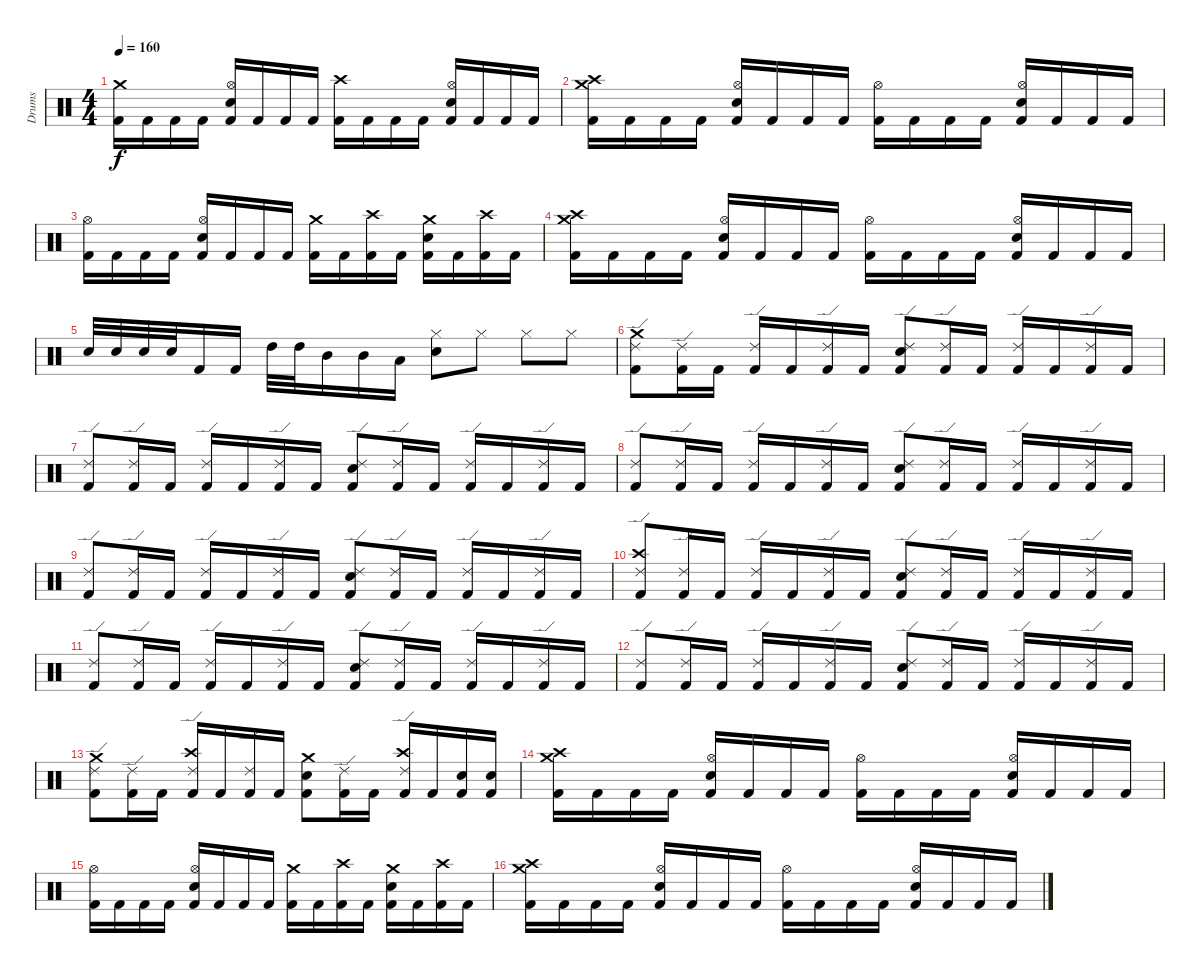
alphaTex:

\track ("Drums" "Drums") {instrument percussion}
\staff {score}
\articulation defaults
\ts (4 4)
\tempo 160
\clef neutral
\ks c
("Crash medium (hit)" "Kick (hit) 2").16{dy f} "Kick (hit) 2".16 "Kick (hit) 2".16 "Kick (hit) 2".16 ("Hi-Hat (open)" "Kick (hit) 2" "Snare (hit) 2").16 "Kick (hit) 2".16 "Kick (hit) 2".16 "Kick (hit) 2".16 ("Crash high (hit)" "Kick (hit) 2").16 "Kick (hit) 2".16 "Kick (hit) 2".16 "Kick (hit) 2".16 ("Hi-Hat (open)" "Kick (hit) 2" "Snare (hit) 2").16 "Kick (hit) 2".16 "Kick (hit) 2".16 "Kick (hit) 2".16 |
("Crash medium (hit)" "Crash high (hit)" "Kick (hit) 2").16 "Kick (hit) 2".16 "Kick (hit) 2".16 "Kick (hit) 2".16 ("Hi-Hat (open)" "Kick (hit) 2" "Snare (hit) 2").16 "Kick (hit) 2".16 "Kick (hit) 2".16 "Kick (hit) 2".16 ("Hi-Hat (open)" "Kick (hit) 2").16 "Kick (hit) 2".16 "Kick (hit) 2".16 "Kick (hit) 2".16 ("Hi-Hat (open)" "Kick (hit) 2" "Snare (hit) 2").16 "Kick (hit) 2".16 "Kick (hit) 2".16 "Kick (hit) 2".16 |
("Hi-Hat (open)" "Kick (hit) 2").16 "Kick (hit) 2".16 "Kick (hit) 2".16 "Kick (hit) 2".16 ("Hi-Hat (open)" "Kick (hit) 2" "Snare (hit) 2").16 "Kick (hit) 2".16 "Kick (hit) 2".16 "Kick (hit) 2".16 ("Crash medium (hit)" "Kick (hit) 2").16 "Kick (hit) 2".16 ("Crash high (hit)" "Kick (hit) 2").16 "Kick (hit) 2".16 ("Crash medium (hit)" "Kick (hit) 2" "Snare (hit) 2").16 "Kick (hit) 2".16 ("Crash high (hit)" "Kick (hit) 2").16 "Kick (hit) 2".16 |
("Crash medium (hit)" "Crash high (hit)" "Kick (hit) 2").16 "Kick (hit) 2".16 "Kick (hit) 2".16 "Kick (hit) 2".16 ("Hi-Hat (open)" "Kick (hit) 2" "Snare (hit) 2").16 "Kick (hit) 2".16 "Kick (hit) 2".16 "Kick (hit) 2".16 ("Hi-Hat (open)" "Kick (hit) 2").16 "Kick (hit) 2".16 "Kick (hit) 2".16 "Kick (hit) 2".16 ("Hi-Hat (open)" "Kick (hit) 2" "Snare (hit) 2").16 "Kick (hit) 2".16 "Kick (hit) 2".16 "Kick (hit) 2".16 |
"Snare (hit) 2".32 "Snare (hit) 2".32 "Snare (hit) 2".32 "Snare (hit) 2".32 "Kick (hit) 2".16 "Kick (hit) 2".16 "High Tom (hit)".32 "High Tom (hit)".32 "Mid Tom (hit)".16 "Mid Tom (hit)".16 "Low Tom (hit)".16 ("Hi-Hat (closed)" "Snare (hit) 2").8 "Hi-Hat (closed)".8 "Hi-Hat (closed)".8 "Hi-Hat (closed)".8 |
("Crash medium (hit)" "Ride (edge) 2" "Kick (hit) 2").8 ("Ride (edge) 2" "Kick (hit) 2").16 "Kick (hit) 2".16 ("Ride (edge) 2" "Kick (hit) 2").16 "Kick (hit) 2".16 ("Ride (edge) 2" "Kick (hit) 2").16 "Kick (hit) 2".16 ("Ride (edge) 2" "Kick (hit) 2" "Snare (hit) 2").8 ("Ride (edge) 2" "Kick (hit) 2").16 "Kick (hit) 2".16 ("Ride (edge) 2" "Kick (hit) 2").16 "Kick (hit) 2".16 ("Ride (edge) 2" "Kick (hit) 2").16 "Kick (hit) 2".16 |
("Ride (edge) 2" "Kick (hit) 2").8 ("Ride (edge) 2" "Kick (hit) 2").16 "Kick (hit) 2".16 ("Ride (edge) 2" "Kick (hit) 2").16 "Kick (hit) 2".16 ("Ride (edge) 2" "Kick (hit) 2").16 "Kick (hit) 2".16 ("Ride (edge) 2" "Kick (hit) 2" "Snare (hit) 2").8 ("Ride (edge) 2" "Kick (hit) 2").16 "Kick (hit) 2".16 ("Ride (edge) 2" "Kick (hit) 2").16 "Kick (hit) 2".16 ("Ride (edge) 2" "Kick (hit) 2").16 "Kick (hit) 2".16 |
("Ride (edge) 2" "Kick (hit) 2").8 ("Ride (edge) 2" "Kick (hit) 2").16 "Kick (hit) 2".16 ("Ride (edge) 2" "Kick (hit) 2").16 "Kick (hit) 2".16 ("Ride (edge) 2" "Kick (hit) 2").16 "Kick (hit) 2".16 ("Ride (edge) 2" "Kick (hit) 2" "Snare (hit) 2").8 ("Ride (edge) 2" "Kick (hit) 2").16 "Kick (hit) 2".16 ("Ride (edge) 2" "Kick (hit) 2").16 "Kick (hit) 2".16 ("Ride (edge) 2" "Kick (hit) 2").16 "Kick (hit) 2".16 |
("Ride (edge) 2" "Kick (hit) 2").8 ("Ride (edge) 2" "Kick (hit) 2").16 "Kick (hit) 2".16 ("Ride (edge) 2" "Kick (hit) 2").16 "Kick (hit) 2".16 ("Ride (edge) 2" "Kick (hit) 2").16 "Kick (hit) 2".16 ("Ride (edge) 2" "Kick (hit) 2" "Snare (hit) 2").8 ("Ride (edge) 2" "Kick (hit) 2").16 "Kick (hit) 2".16 ("Ride (edge) 2" "Kick (hit) 2").16 "Kick (hit) 2".16 ("Ride (edge) 2" "Kick (hit) 2").16 "Kick (hit) 2".16 |
("Crash high (hit)" "Ride (edge) 2" "Kick (hit) 2").8 ("Ride (edge) 2" "Kick (hit) 2").16 "Kick (hit) 2".16 ("Ride (edge) 2" "Kick (hit) 2").16 "Kick (hit) 2".16 ("Ride (edge) 2" "Kick (hit) 2").16 "Kick (hit) 2".16 ("Ride (edge) 2" "Kick (hit) 2" "Snare (hit) 2").8 ("Ride (edge) 2" "Kick (hit) 2").16 "Kick (hit) 2".16 ("Ride (edge) 2" "Kick (hit) 2").16 "Kick (hit) 2".16 ("Ride (edge) 2" "Kick (hit) 2").16 "Kick (hit) 2".16 |
("Ride (edge) 2" "Kick (hit) 2").8 ("Ride (edge) 2" "Kick (hit) 2").16 "Kick (hit) 2".16 ("Ride (edge) 2" "Kick (hit) 2").16 "Kick (hit) 2".16 ("Ride (edge) 2" "Kick (hit) 2").16 "Kick (hit) 2".16 ("Ride (edge) 2" "Kick (hit) 2" "Snare (hit) 2").8 ("Ride (edge) 2" "Kick (hit) 2").16 "Kick (hit) 2".16 ("Ride (edge) 2" "Kick (hit) 2").16 "Kick (hit) 2".16 ("Ride (edge) 2" "Kick (hit) 2").16 "Kick (hit) 2".16 |
("Ride (edge) 2" "Kick (hit) 2").8 ("Ride (edge) 2" "Kick (hit) 2").16 "Kick (hit) 2".16 ("Ride (edge) 2" "Kick (hit) 2").16 "Kick (hit) 2".16 ("Ride (edge) 2" "Kick (hit) 2").16 "Kick (hit) 2".16 ("Ride (edge) 2" "Kick (hit) 2" "Snare (hit) 2").8 ("Ride (edge) 2" "Kick (hit) 2").16 "Kick (hit) 2".16 ("Ride (edge) 2" "Kick (hit) 2").16 "Kick (hit) 2".16 ("Ride (edge) 2" "Kick (hit) 2").16 "Kick (hit) 2".16 |
("Crash medium (hit)" "Ride (edge) 2" "Kick (hit) 2").8 ("Ride (edge) 2" "Kick (hit) 2").16 "Kick (hit) 2".16 ("Crash high (hit)" "Ride (edge) 2" "Kick (hit) 2").16 "Kick (hit) 2".16 ("Ride (edge) 2" "Kick (hit) 2").16 "Kick (hit) 2".16 ("Crash medium (hit)" "Kick (hit) 2" "Snare (hit) 2").8 ("Ride (edge) 2" "Kick (hit) 2").16 "Kick (hit) 2".16 ("Crash high (hit)" "Ride (edge) 2" "Kick (hit) 2").16 "Kick (hit) 2".16 ("Kick (hit) 2" "Snare (hit) 2").16 ("Kick (hit) 2" "Snare (hit) 2").16 |
("Crash medium (hit)" "Crash high (hit)" "Kick (hit) 2").16 "Kick (hit) 2".16 "Kick (hit) 2".16 "Kick (hit) 2".16 ("Hi-Hat (open)" "Kick (hit) 2" "Snare (hit) 2").16 "Kick (hit) 2".16 "Kick (hit) 2".16 "Kick (hit) 2".16 ("Hi-Hat (open)" "Kick (hit) 2").16 "Kick (hit) 2".16 "Kick (hit) 2".16 "Kick (hit) 2".16 ("Hi-Hat (open)" "Kick (hit) 2" "Snare (hit) 2").16 "Kick (hit) 2".16 "Kick (hit) 2".16 "Kick (hit) 2".16 |
("Hi-Hat (open)" "Kick (hit) 2").16 "Kick (hit) 2".16 "Kick (hit) 2".16 "Kick (hit) 2".16 ("Hi-Hat (open)" "Kick (hit) 2" "Snare (hit) 2").16 "Kick (hit) 2".16 "Kick (hit) 2".16 "Kick (hit) 2".16 ("Crash medium (hit)" "Kick (hit) 2").16 "Kick (hit) 2".16 ("Crash high (hit)" "Kick (hit) 2").16 "Kick (hit) 2".16 ("Crash medium (hit)" "Kick (hit) 2" "Snare (hit) 2").16 "Kick (hit) 2".16 ("Crash high (hit)" "Kick (hit) 2").16 "Kick (hit) 2".16 |
("Crash medium (hit)" "Crash high (hit)" "Kick (hit) 2").16 "Kick (hit) 2".16 "Kick (hit) 2".16 "Kick (hit) 2".16 ("Hi-Hat (open)" "Kick (hit) 2" "Snare (hit) 2").16 "Kick (hit) 2".16 "Kick (hit) 2".16 "Kick (hit) 2".16 ("Hi-Hat (open)" "Kick (hit) 2").16 "Kick (hit) 2".16 "Kick (hit) 2".16 "Kick (hit) 2".16 ("Hi-Hat (open)" "Kick (hit) 2" "Snare (hit) 2").16 "Kick (hit) 2".16 "Kick (hit) 2".16 "Kick (hit) 2".16
